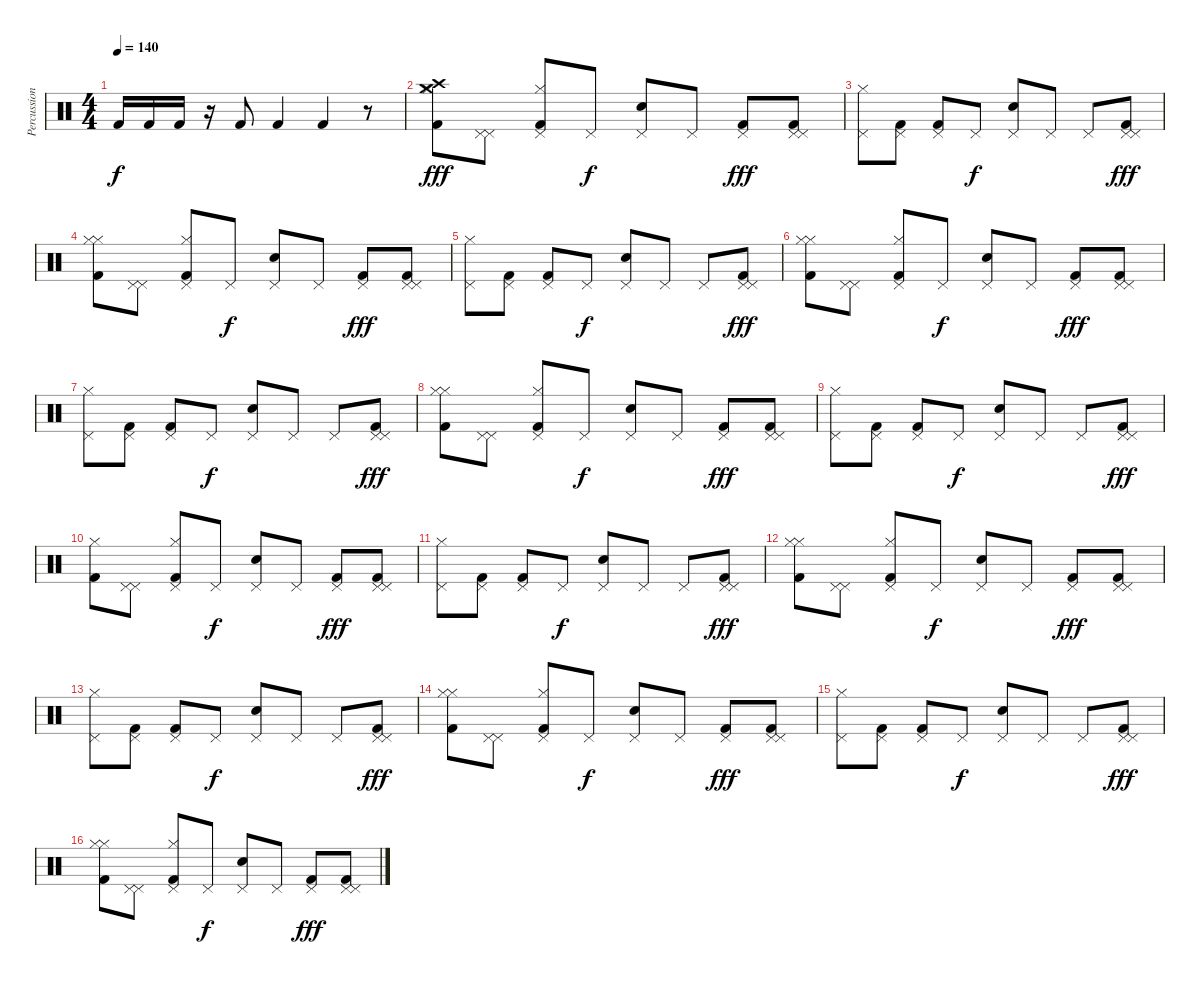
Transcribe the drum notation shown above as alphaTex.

\track ("Percussion" "Percussion") {instrument percussion}
\staff {score}
\articulation defaults
\ts (4 4)
\tempo 140
\clef neutral
\ks c "Kick (hit) 2".16{dy f} "Kick (hit) 2".16 "Kick (hit) 2".16
r.16 "Kick (hit) 2".8 "Kick (hit) 2".4 "Kick (hit) 2".4 r.8 |
("Hi-Hat (closed)" "Crash medium (hit)" "Crash high (hit)" "Kick (hit) 2").8{dy fff} ("Pedal Hi-Hat (hit)" "Pedal Hi-Hat (hit)").8 ("Pedal Hi-Hat (hit)" "Hi-Hat (closed)" "Kick (hit) 2").8 "Pedal Hi-Hat (hit)".8{dy f} ("Pedal Hi-Hat (hit)" "Electric Snare (hit)").8 "Pedal Hi-Hat (hit)".8 ("Pedal Hi-Hat (hit)" "Kick (hit) 2").8{dy fff} ("Pedal Hi-Hat (hit)" "Pedal Hi-Hat (hit)" "Kick (hit) 2").8 |
("Pedal Hi-Hat (hit)" "Hi-Hat (closed)").8 ("Pedal Hi-Hat (hit)" "Kick (hit) 2").8 ("Pedal Hi-Hat (hit)" "Kick (hit) 2").8 "Pedal Hi-Hat (hit)".8{dy f} ("Pedal Hi-Hat (hit)" "Electric Snare (hit)").8 "Pedal Hi-Hat (hit)".8 "Pedal Hi-Hat (hit)".8 ("Pedal Hi-Hat (hit)" "Pedal Hi-Hat (hit)" "Kick (hit) 2").8{dy fff} |
("Hi-Hat (closed)" "Hi-Hat (closed)" "Kick (hit) 2").8 ("Pedal Hi-Hat (hit)" "Pedal Hi-Hat (hit)").8 ("Pedal Hi-Hat (hit)" "Hi-Hat (closed)" "Kick (hit) 2").8 "Pedal Hi-Hat (hit)".8{dy f} ("Pedal Hi-Hat (hit)" "Electric Snare (hit)").8 "Pedal Hi-Hat (hit)".8 ("Pedal Hi-Hat (hit)" "Kick (hit) 2").8{dy fff} ("Pedal Hi-Hat (hit)" "Pedal Hi-Hat (hit)" "Kick (hit) 2").8 |
("Pedal Hi-Hat (hit)" "Hi-Hat (closed)").8 ("Pedal Hi-Hat (hit)" "Kick (hit) 2").8 ("Pedal Hi-Hat (hit)" "Kick (hit) 2").8 "Pedal Hi-Hat (hit)".8{dy f} ("Pedal Hi-Hat (hit)" "Electric Snare (hit)").8 "Pedal Hi-Hat (hit)".8 "Pedal Hi-Hat (hit)".8 ("Pedal Hi-Hat (hit)" "Pedal Hi-Hat (hit)" "Kick (hit) 2").8{dy fff} |
("Hi-Hat (closed)" "Hi-Hat (closed)" "Kick (hit) 2").8 ("Pedal Hi-Hat (hit)" "Pedal Hi-Hat (hit)").8 ("Pedal Hi-Hat (hit)" "Hi-Hat (closed)" "Kick (hit) 2").8 "Pedal Hi-Hat (hit)".8{dy f} ("Pedal Hi-Hat (hit)" "Electric Snare (hit)").8 "Pedal Hi-Hat (hit)".8 ("Pedal Hi-Hat (hit)" "Kick (hit) 2").8{dy fff} ("Pedal Hi-Hat (hit)" "Pedal Hi-Hat (hit)" "Kick (hit) 2").8 |
("Pedal Hi-Hat (hit)" "Hi-Hat (closed)").8 ("Pedal Hi-Hat (hit)" "Kick (hit) 2").8 ("Pedal Hi-Hat (hit)" "Kick (hit) 2").8 "Pedal Hi-Hat (hit)".8{dy f} ("Pedal Hi-Hat (hit)" "Electric Snare (hit)").8 "Pedal Hi-Hat (hit)".8 "Pedal Hi-Hat (hit)".8 ("Pedal Hi-Hat (hit)" "Pedal Hi-Hat (hit)" "Kick (hit) 2").8{dy fff} |
("Hi-Hat (closed)" "Hi-Hat (closed)" "Kick (hit) 2").8 ("Pedal Hi-Hat (hit)" "Pedal Hi-Hat (hit)").8 ("Pedal Hi-Hat (hit)" "Hi-Hat (closed)" "Kick (hit) 2").8 "Pedal Hi-Hat (hit)".8{dy f} ("Pedal Hi-Hat (hit)" "Electric Snare (hit)").8 "Pedal Hi-Hat (hit)".8 ("Pedal Hi-Hat (hit)" "Kick (hit) 2").8{dy fff} ("Pedal Hi-Hat (hit)" "Pedal Hi-Hat (hit)" "Kick (hit) 2").8 |
("Pedal Hi-Hat (hit)" "Hi-Hat (closed)").8 ("Pedal Hi-Hat (hit)" "Kick (hit) 2").8 ("Pedal Hi-Hat (hit)" "Kick (hit) 2").8 "Pedal Hi-Hat (hit)".8{dy f} ("Pedal Hi-Hat (hit)" "Electric Snare (hit)").8 "Pedal Hi-Hat (hit)".8 "Pedal Hi-Hat (hit)".8 ("Pedal Hi-Hat (hit)" "Pedal Hi-Hat (hit)" "Kick (hit) 2").8{dy fff} |
("Hi-Hat (closed)" "Kick (hit) 2").8 ("Pedal Hi-Hat (hit)" "Pedal Hi-Hat (hit)").8 ("Pedal Hi-Hat (hit)" "Hi-Hat (closed)" "Kick (hit) 2").8 "Pedal Hi-Hat (hit)".8{dy f} ("Pedal Hi-Hat (hit)" "Electric Snare (hit)").8 "Pedal Hi-Hat (hit)".8 ("Pedal Hi-Hat (hit)" "Kick (hit) 2").8{dy fff} ("Pedal Hi-Hat (hit)" "Pedal Hi-Hat (hit)" "Kick (hit) 2").8 |
("Pedal Hi-Hat (hit)" "Hi-Hat (closed)").8 ("Pedal Hi-Hat (hit)" "Kick (hit) 2").8 ("Pedal Hi-Hat (hit)" "Kick (hit) 2").8 "Pedal Hi-Hat (hit)".8{dy f} ("Pedal Hi-Hat (hit)" "Electric Snare (hit)").8 "Pedal Hi-Hat (hit)".8 "Pedal Hi-Hat (hit)".8 ("Pedal Hi-Hat (hit)" "Pedal Hi-Hat (hit)" "Kick (hit) 2").8{dy fff} |
("Hi-Hat (closed)" "Hi-Hat (closed)" "Kick (hit) 2").8 ("Pedal Hi-Hat (hit)" "Pedal Hi-Hat (hit)").8 ("Pedal Hi-Hat (hit)" "Hi-Hat (closed)" "Kick (hit) 2").8 "Pedal Hi-Hat (hit)".8{dy f} ("Pedal Hi-Hat (hit)" "Electric Snare (hit)").8 "Pedal Hi-Hat (hit)".8 ("Pedal Hi-Hat (hit)" "Kick (hit) 2").8{dy fff} ("Pedal Hi-Hat (hit)" "Pedal Hi-Hat (hit)" "Kick (hit) 2").8 |
("Pedal Hi-Hat (hit)" "Hi-Hat (closed)").8 ("Pedal Hi-Hat (hit)" "Kick (hit) 2").8 ("Pedal Hi-Hat (hit)" "Kick (hit) 2").8 "Pedal Hi-Hat (hit)".8{dy f} ("Pedal Hi-Hat (hit)" "Electric Snare (hit)").8 "Pedal Hi-Hat (hit)".8 "Pedal Hi-Hat (hit)".8 ("Pedal Hi-Hat (hit)" "Pedal Hi-Hat (hit)" "Kick (hit) 2").8{dy fff} |
("Hi-Hat (closed)" "Hi-Hat (closed)" "Kick (hit) 2").8 ("Pedal Hi-Hat (hit)" "Pedal Hi-Hat (hit)").8 ("Pedal Hi-Hat (hit)" "Hi-Hat (closed)" "Kick (hit) 2").8 "Pedal Hi-Hat (hit)".8{dy f} ("Pedal Hi-Hat (hit)" "Electric Snare (hit)").8 "Pedal Hi-Hat (hit)".8 ("Pedal Hi-Hat (hit)" "Kick (hit) 2").8{dy fff} ("Pedal Hi-Hat (hit)" "Pedal Hi-Hat (hit)" "Kick (hit) 2").8 |
("Pedal Hi-Hat (hit)" "Hi-Hat (closed)").8 ("Pedal Hi-Hat (hit)" "Kick (hit) 2").8 ("Pedal Hi-Hat (hit)" "Kick (hit) 2").8 "Pedal Hi-Hat (hit)".8{dy f} ("Pedal Hi-Hat (hit)" "Electric Snare (hit)").8 "Pedal Hi-Hat (hit)".8 "Pedal Hi-Hat (hit)".8 ("Pedal Hi-Hat (hit)" "Pedal Hi-Hat (hit)" "Kick (hit) 2").8{dy fff} |
("Hi-Hat (closed)" "Hi-Hat (closed)" "Kick (hit) 2").8 ("Pedal Hi-Hat (hit)" "Pedal Hi-Hat (hit)").8 ("Pedal Hi-Hat (hit)" "Hi-Hat (closed)" "Kick (hit) 2").8 "Pedal Hi-Hat (hit)".8{dy f} ("Pedal Hi-Hat (hit)" "Electric Snare (hit)").8 "Pedal Hi-Hat (hit)".8 ("Pedal Hi-Hat (hit)" "Kick (hit) 2").8{dy fff} ("Pedal Hi-Hat (hit)" "Pedal Hi-Hat (hit)" "Kick (hit) 2").8
